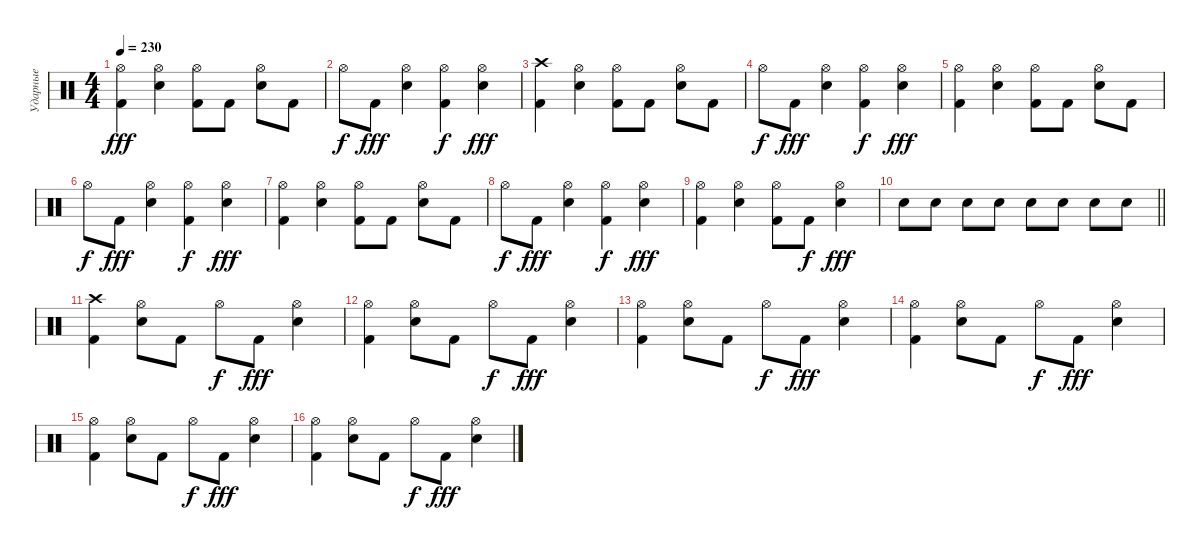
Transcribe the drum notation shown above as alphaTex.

\track ("Ударные" "Ударные") {instrument percussion}
\staff {score}
\articulation defaults
\ts (4 4)
\tempo 230
\clef neutral
\ks c
("Kick (hit) 2" "Hi-Hat (open)").4{dy fff} ("Snare (hit) 2" "Hi-Hat (open)").4 ("Kick (hit) 2" "Hi-Hat (open)").8 "Kick (hit) 2".8 ("Snare (hit) 2" "Hi-Hat (open)").8 "Kick (hit) 2".8 |
"Hi-Hat (open)".8{dy f} "Kick (hit) 2".8{dy fff} ("Snare (hit) 2" "Hi-Hat (open)").4 ("Kick (hit) 2" "Hi-Hat (open)").4{dy f} ("Snare (hit) 2" "Hi-Hat (open)").4{dy fff} |
("Kick (hit) 2" "Crash high (hit)").4 ("Snare (hit) 2" "Hi-Hat (open)").4 ("Kick (hit) 2" "Hi-Hat (open)").8 "Kick (hit) 2".8 ("Snare (hit) 2" "Hi-Hat (open)").8 "Kick (hit) 2".8 |
"Hi-Hat (open)".8{dy f} "Kick (hit) 2".8{dy fff} ("Snare (hit) 2" "Hi-Hat (open)").4 ("Kick (hit) 2" "Hi-Hat (open)").4{dy f} ("Snare (hit) 2" "Hi-Hat (open)").4{dy fff} |
("Kick (hit) 2" "Hi-Hat (open)").4 ("Snare (hit) 2" "Hi-Hat (open)").4 ("Kick (hit) 2" "Hi-Hat (open)").8 "Kick (hit) 2".8 ("Snare (hit) 2" "Hi-Hat (open)").8 "Kick (hit) 2".8 |
"Hi-Hat (open)".8{dy f} "Kick (hit) 2".8{dy fff} ("Snare (hit) 2" "Hi-Hat (open)").4 ("Kick (hit) 2" "Hi-Hat (open)").4{dy f} ("Snare (hit) 2" "Hi-Hat (open)").4{dy fff} |
("Kick (hit) 2" "Hi-Hat (open)").4 ("Snare (hit) 2" "Hi-Hat (open)").4 ("Kick (hit) 2" "Hi-Hat (open)").8 "Kick (hit) 2".8 ("Snare (hit) 2" "Hi-Hat (open)").8 "Kick (hit) 2".8 |
"Hi-Hat (open)".8{dy f} "Kick (hit) 2".8{dy fff} ("Snare (hit) 2" "Hi-Hat (open)").4 ("Kick (hit) 2" "Hi-Hat (open)").4{dy f} ("Snare (hit) 2" "Hi-Hat (open)").4{dy fff} |
("Kick (hit) 2" "Hi-Hat (open)").4 ("Snare (hit) 2" "Hi-Hat (open)").4 ("Kick (hit) 2" "Hi-Hat (open)").8 "Kick (hit) 2".8{dy f} ("Snare (hit) 2" "Hi-Hat (open)").4{dy fff} |
\barLineRight lightlight "Snare (hit) 2".8 "Snare (hit) 2".8 "Snare (hit) 2".8 "Snare (hit) 2".8 "Snare (hit) 2".8 "Snare (hit) 2".8 "Snare (hit) 2".8 "Snare (hit) 2".8
|
("Kick (hit) 2" "Crash high (hit)").4 ("Snare (hit) 2" "Hi-Hat (open)").8 "Kick (hit) 2".8 "Hi-Hat (open)".8{dy f} "Kick (hit) 2".8{dy fff} ("Snare (hit) 2" "Hi-Hat (open)").4 |
("Kick (hit) 2" "Hi-Hat (open)").4 ("Snare (hit) 2" "Hi-Hat (open)").8 "Kick (hit) 2".8 "Hi-Hat (open)".8{dy f} "Kick (hit) 2".8{dy fff} ("Snare (hit) 2" "Hi-Hat (open)").4 |
("Kick (hit) 2" "Hi-Hat (open)").4 ("Snare (hit) 2" "Hi-Hat (open)").8 "Kick (hit) 2".8 "Hi-Hat (open)".8{dy f} "Kick (hit) 2".8{dy fff} ("Snare (hit) 2" "Hi-Hat (open)").4 |
("Kick (hit) 2" "Hi-Hat (open)").4 ("Snare (hit) 2" "Hi-Hat (open)").8 "Kick (hit) 2".8 "Hi-Hat (open)".8{dy f} "Kick (hit) 2".8{dy fff} ("Snare (hit) 2" "Hi-Hat (open)").4 |
("Kick (hit) 2" "Hi-Hat (open)").4 ("Snare (hit) 2" "Hi-Hat (open)").8 "Kick (hit) 2".8 "Hi-Hat (open)".8{dy f} "Kick (hit) 2".8{dy fff} ("Snare (hit) 2" "Hi-Hat (open)").4 |
("Kick (hit) 2" "Hi-Hat (open)").4 ("Snare (hit) 2" "Hi-Hat (open)").8 "Kick (hit) 2".8 "Hi-Hat (open)".8{dy f} "Kick (hit) 2".8{dy fff} ("Snare (hit) 2" "Hi-Hat (open)").4
